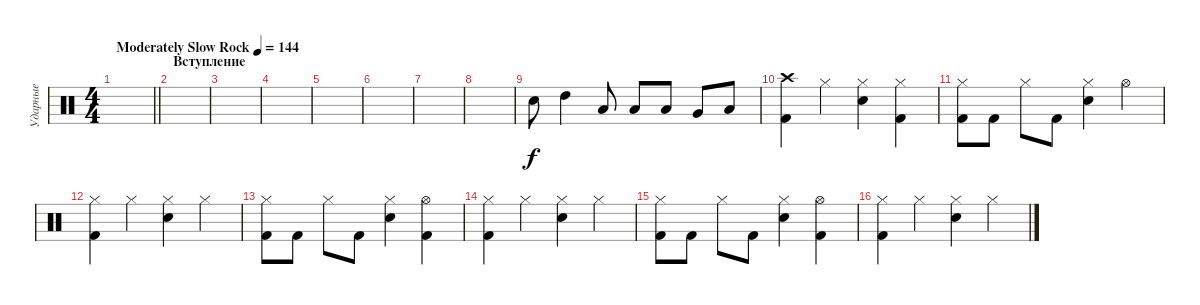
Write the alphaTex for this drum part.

\track ("Ударные" "Ударные") {instrument percussion}
\staff {score}
\articulation defaults
\ts (4 4)
\tempo (144 "Moderately Slow Rock")
\clef neutral
\barLineRight lightlight
\ks c
|
\section ("" "Вступление")
|
|
|
|
|
|
|
"Snare (hit) 2".8 "High Tom (hit)".4 "Low Tom (hit)".8 "Low Tom (hit)".8 "Low Tom (hit)".8 "Very Low Tom (hit)".8 "Low Floor Tom (hit)".8 |
("Kick (hit) 2" "Crash high (hit)").4 "Hi-Hat (closed)".4 ("Snare (hit) 2" "Hi-Hat (closed)").4 ("Kick (hit) 2" "Hi-Hat (closed)").4 |
("Kick (hit) 2" "Hi-Hat (closed)").8 "Kick (hit) 2".8 "Hi-Hat (closed)".8 "Kick (hit) 2".8 ("Snare (hit) 2" "Hi-Hat (closed)").4 "Hi-Hat (open)".4 |
("Kick (hit) 2" "Hi-Hat (closed)").4 "Hi-Hat (closed)".4 ("Snare (hit) 2" "Hi-Hat (closed)").4 "Hi-Hat (closed)".4 |
("Kick (hit) 2" "Hi-Hat (closed)").8 "Kick (hit) 2".8 "Hi-Hat (closed)".8 "Kick (hit) 2".8 ("Snare (hit) 2" "Hi-Hat (closed)").4 ("Kick (hit) 2" "Hi-Hat (open)").4 |
("Kick (hit) 2" "Hi-Hat (closed)").4 "Hi-Hat (closed)".4 ("Snare (hit) 2" "Hi-Hat (closed)").4 "Hi-Hat (closed)".4 |
("Kick (hit) 2" "Hi-Hat (closed)").8 "Kick (hit) 2".8 "Hi-Hat (closed)".8 "Kick (hit) 2".8 ("Snare (hit) 2" "Hi-Hat (closed)").4 ("Kick (hit) 2" "Hi-Hat (open)").4 |
("Kick (hit) 2" "Hi-Hat (closed)").4 "Hi-Hat (closed)".4 ("Snare (hit) 2" "Hi-Hat (closed)").4 "Hi-Hat (closed)".4
